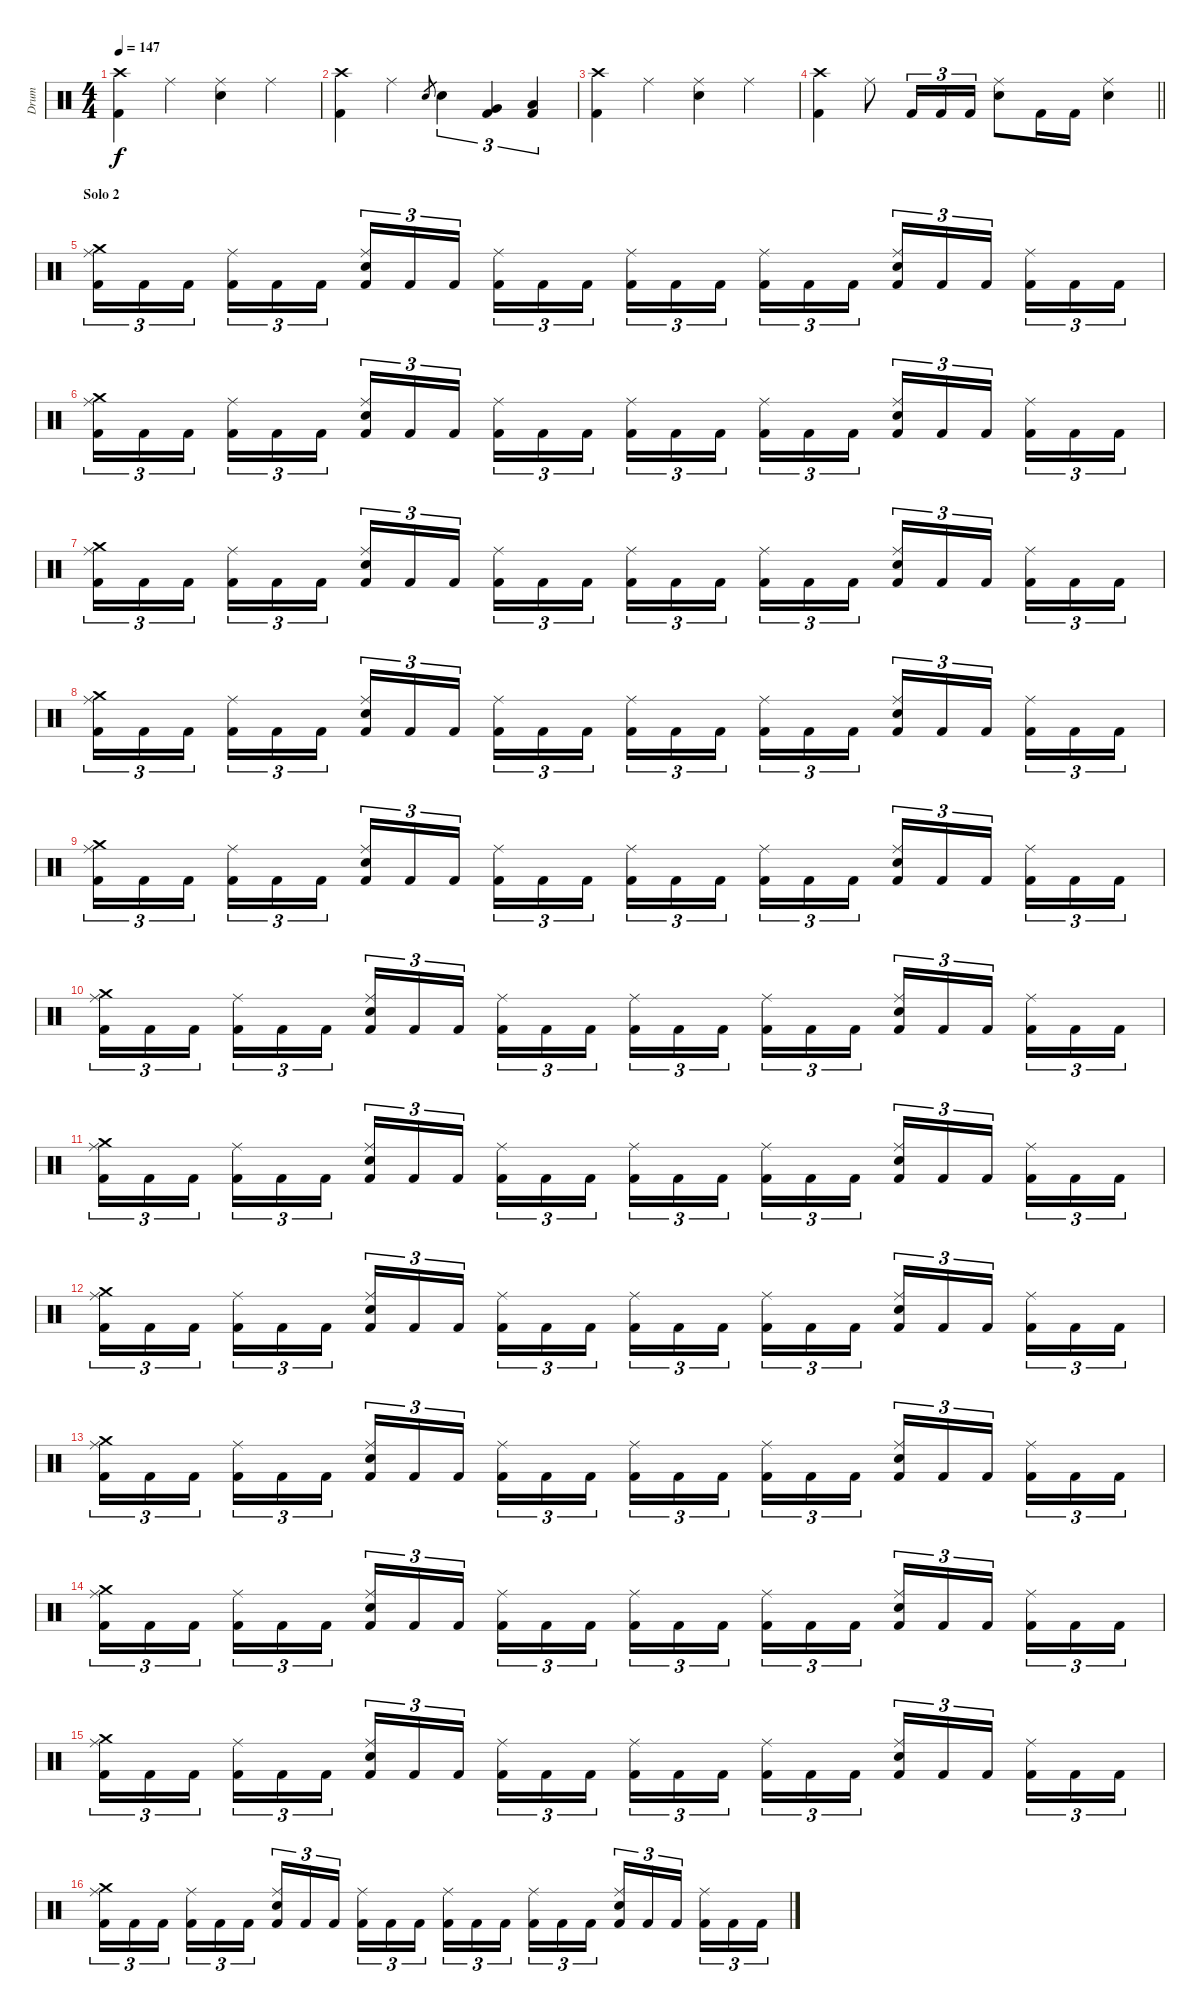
\track ("Drum" "Drum") {instrument percussion}
\staff {score}
\articulation defaults
\ts (4 4)
\tempo 147
\clef neutral
\ks c
("Crash high (hit)" "Kick (hit) 2").4{dy f} "Ride (middle)".4 ("Ride (middle)" "Electric Snare (hit)").4 "Ride (middle)".4 |
("Crash high (hit)" "Kick (hit) 2").4 "Ride (middle)".4 "Electric Snare (hit)".8{gr} "Electric Snare (hit)".4{tu (3 2)} ("Very Low Tom (hit)" "Kick (hit) 2").4{tu (3 2)} ("Low Floor Tom (hit)" "Kick (hit) 2").4{tu (3 2)} |
("Crash high (hit)" "Kick (hit) 2").4 "Ride (middle)".4 ("Ride (middle)" "Electric Snare (hit)").4 "Ride (middle)".4 |
\barLineRight lightlight
("Crash high (hit)" "Kick (hit) 2").4 "Ride (middle)".8 "Kick (hit) 2".16{tu (3 2)} "Kick (hit) 2".16{tu (3 2)} "Kick (hit) 2".16{tu (3 2)} ("Ride (middle)" "Electric Snare (hit)").8 "Kick (hit) 2".16 "Kick (hit) 2".16 ("Ride (middle)" "Electric Snare (hit)").4 |
\section ("" "Solo 2")
("Crash medium (hit)" "Ride (middle)" "Kick (hit) 2").16{tu (3 2)} "Kick (hit) 2".16{tu (3 2)} "Kick (hit) 2".16{tu (3 2) beam splitsecondary} ("Ride (middle)" "Kick (hit) 2").16{tu (3 2)} "Kick (hit) 2".16{tu (3 2)} "Kick (hit) 2".16{tu (3 2)} ("Ride (middle)" "Electric Snare (hit)" "Kick (hit) 2").16{tu (3 2)} "Kick (hit) 2".16{tu (3 2)} "Kick (hit) 2".16{tu (3 2) beam splitsecondary} ("Ride (middle)" "Kick (hit) 2").16{tu (3 2)} "Kick (hit) 2".16{tu (3 2)} "Kick (hit) 2".16{tu (3 2)} ("Ride (middle)" "Kick (hit) 2").16{tu (3 2)} "Kick (hit) 2".16{tu (3 2)} "Kick (hit) 2".16{tu (3 2) beam splitsecondary} ("Ride (middle)" "Kick (hit) 2").16{tu (3 2)} "Kick (hit) 2".16{tu (3 2)} "Kick (hit) 2".16{tu (3 2)} ("Ride (middle)" "Electric Snare (hit)" "Kick (hit) 2").16{tu (3 2)} "Kick (hit) 2".16{tu (3 2)} "Kick (hit) 2".16{tu (3 2) beam splitsecondary} ("Ride (middle)" "Kick (hit) 2").16{tu (3 2)} "Kick (hit) 2".16{tu (3 2)} "Kick (hit) 2".16{tu (3 2)} |
("Crash medium (hit)" "Ride (middle)" "Kick (hit) 2").16{tu (3 2)} "Kick (hit) 2".16{tu (3 2)} "Kick (hit) 2".16{tu (3 2) beam splitsecondary} ("Ride (middle)" "Kick (hit) 2").16{tu (3 2)} "Kick (hit) 2".16{tu (3 2)} "Kick (hit) 2".16{tu (3 2)} ("Ride (middle)" "Electric Snare (hit)" "Kick (hit) 2").16{tu (3 2)} "Kick (hit) 2".16{tu (3 2)} "Kick (hit) 2".16{tu (3 2) beam splitsecondary} ("Ride (middle)" "Kick (hit) 2").16{tu (3 2)} "Kick (hit) 2".16{tu (3 2)} "Kick (hit) 2".16{tu (3 2)} ("Ride (middle)" "Kick (hit) 2").16{tu (3 2)} "Kick (hit) 2".16{tu (3 2)} "Kick (hit) 2".16{tu (3 2) beam splitsecondary} ("Ride (middle)" "Kick (hit) 2").16{tu (3 2)} "Kick (hit) 2".16{tu (3 2)} "Kick (hit) 2".16{tu (3 2)} ("Ride (middle)" "Electric Snare (hit)" "Kick (hit) 2").16{tu (3 2)} "Kick (hit) 2".16{tu (3 2)} "Kick (hit) 2".16{tu (3 2) beam splitsecondary} ("Ride (middle)" "Kick (hit) 2").16{tu (3 2)} "Kick (hit) 2".16{tu (3 2)} "Kick (hit) 2".16{tu (3 2)} |
("Crash medium (hit)" "Ride (middle)" "Kick (hit) 2").16{tu (3 2)} "Kick (hit) 2".16{tu (3 2)} "Kick (hit) 2".16{tu (3 2) beam splitsecondary} ("Ride (middle)" "Kick (hit) 2").16{tu (3 2)} "Kick (hit) 2".16{tu (3 2)} "Kick (hit) 2".16{tu (3 2)} ("Ride (middle)" "Electric Snare (hit)" "Kick (hit) 2").16{tu (3 2)} "Kick (hit) 2".16{tu (3 2)} "Kick (hit) 2".16{tu (3 2) beam splitsecondary} ("Ride (middle)" "Kick (hit) 2").16{tu (3 2)} "Kick (hit) 2".16{tu (3 2)} "Kick (hit) 2".16{tu (3 2)} ("Ride (middle)" "Kick (hit) 2").16{tu (3 2)} "Kick (hit) 2".16{tu (3 2)} "Kick (hit) 2".16{tu (3 2) beam splitsecondary} ("Ride (middle)" "Kick (hit) 2").16{tu (3 2)} "Kick (hit) 2".16{tu (3 2)} "Kick (hit) 2".16{tu (3 2)} ("Ride (middle)" "Electric Snare (hit)" "Kick (hit) 2").16{tu (3 2)} "Kick (hit) 2".16{tu (3 2)} "Kick (hit) 2".16{tu (3 2) beam splitsecondary} ("Ride (middle)" "Kick (hit) 2").16{tu (3 2)} "Kick (hit) 2".16{tu (3 2)} "Kick (hit) 2".16{tu (3 2)} |
("Crash medium (hit)" "Ride (middle)" "Kick (hit) 2").16{tu (3 2)} "Kick (hit) 2".16{tu (3 2)} "Kick (hit) 2".16{tu (3 2) beam splitsecondary} ("Ride (middle)" "Kick (hit) 2").16{tu (3 2)} "Kick (hit) 2".16{tu (3 2)} "Kick (hit) 2".16{tu (3 2)} ("Ride (middle)" "Electric Snare (hit)" "Kick (hit) 2").16{tu (3 2)} "Kick (hit) 2".16{tu (3 2)} "Kick (hit) 2".16{tu (3 2) beam splitsecondary} ("Ride (middle)" "Kick (hit) 2").16{tu (3 2)} "Kick (hit) 2".16{tu (3 2)} "Kick (hit) 2".16{tu (3 2)} ("Ride (middle)" "Kick (hit) 2").16{tu (3 2)} "Kick (hit) 2".16{tu (3 2)} "Kick (hit) 2".16{tu (3 2) beam splitsecondary} ("Ride (middle)" "Kick (hit) 2").16{tu (3 2)} "Kick (hit) 2".16{tu (3 2)} "Kick (hit) 2".16{tu (3 2)} ("Ride (middle)" "Electric Snare (hit)" "Kick (hit) 2").16{tu (3 2)} "Kick (hit) 2".16{tu (3 2)} "Kick (hit) 2".16{tu (3 2) beam splitsecondary} ("Ride (middle)" "Kick (hit) 2").16{tu (3 2)} "Kick (hit) 2".16{tu (3 2)} "Kick (hit) 2".16{tu (3 2)} |
("Crash medium (hit)" "Ride (middle)" "Kick (hit) 2").16{tu (3 2)} "Kick (hit) 2".16{tu (3 2)} "Kick (hit) 2".16{tu (3 2) beam splitsecondary} ("Ride (middle)" "Kick (hit) 2").16{tu (3 2)} "Kick (hit) 2".16{tu (3 2)} "Kick (hit) 2".16{tu (3 2)} ("Ride (middle)" "Electric Snare (hit)" "Kick (hit) 2").16{tu (3 2)} "Kick (hit) 2".16{tu (3 2)} "Kick (hit) 2".16{tu (3 2) beam splitsecondary} ("Ride (middle)" "Kick (hit) 2").16{tu (3 2)} "Kick (hit) 2".16{tu (3 2)} "Kick (hit) 2".16{tu (3 2)} ("Ride (middle)" "Kick (hit) 2").16{tu (3 2)} "Kick (hit) 2".16{tu (3 2)} "Kick (hit) 2".16{tu (3 2) beam splitsecondary} ("Ride (middle)" "Kick (hit) 2").16{tu (3 2)} "Kick (hit) 2".16{tu (3 2)} "Kick (hit) 2".16{tu (3 2)} ("Ride (middle)" "Electric Snare (hit)" "Kick (hit) 2").16{tu (3 2)} "Kick (hit) 2".16{tu (3 2)} "Kick (hit) 2".16{tu (3 2) beam splitsecondary} ("Ride (middle)" "Kick (hit) 2").16{tu (3 2)} "Kick (hit) 2".16{tu (3 2)} "Kick (hit) 2".16{tu (3 2)} |
("Crash medium (hit)" "Ride (middle)" "Kick (hit) 2").16{tu (3 2)} "Kick (hit) 2".16{tu (3 2)} "Kick (hit) 2".16{tu (3 2) beam splitsecondary} ("Ride (middle)" "Kick (hit) 2").16{tu (3 2)} "Kick (hit) 2".16{tu (3 2)} "Kick (hit) 2".16{tu (3 2)} ("Ride (middle)" "Electric Snare (hit)" "Kick (hit) 2").16{tu (3 2)} "Kick (hit) 2".16{tu (3 2)} "Kick (hit) 2".16{tu (3 2) beam splitsecondary} ("Ride (middle)" "Kick (hit) 2").16{tu (3 2)} "Kick (hit) 2".16{tu (3 2)} "Kick (hit) 2".16{tu (3 2)} ("Ride (middle)" "Kick (hit) 2").16{tu (3 2)} "Kick (hit) 2".16{tu (3 2)} "Kick (hit) 2".16{tu (3 2) beam splitsecondary} ("Ride (middle)" "Kick (hit) 2").16{tu (3 2)} "Kick (hit) 2".16{tu (3 2)} "Kick (hit) 2".16{tu (3 2)} ("Ride (middle)" "Electric Snare (hit)" "Kick (hit) 2").16{tu (3 2)} "Kick (hit) 2".16{tu (3 2)} "Kick (hit) 2".16{tu (3 2) beam splitsecondary} ("Ride (middle)" "Kick (hit) 2").16{tu (3 2)} "Kick (hit) 2".16{tu (3 2)} "Kick (hit) 2".16{tu (3 2)} |
("Crash medium (hit)" "Ride (middle)" "Kick (hit) 2").16{tu (3 2)} "Kick (hit) 2".16{tu (3 2)} "Kick (hit) 2".16{tu (3 2) beam splitsecondary} ("Ride (middle)" "Kick (hit) 2").16{tu (3 2)} "Kick (hit) 2".16{tu (3 2)} "Kick (hit) 2".16{tu (3 2)} ("Ride (middle)" "Electric Snare (hit)" "Kick (hit) 2").16{tu (3 2)} "Kick (hit) 2".16{tu (3 2)} "Kick (hit) 2".16{tu (3 2) beam splitsecondary} ("Ride (middle)" "Kick (hit) 2").16{tu (3 2)} "Kick (hit) 2".16{tu (3 2)} "Kick (hit) 2".16{tu (3 2)} ("Ride (middle)" "Kick (hit) 2").16{tu (3 2)} "Kick (hit) 2".16{tu (3 2)} "Kick (hit) 2".16{tu (3 2) beam splitsecondary} ("Ride (middle)" "Kick (hit) 2").16{tu (3 2)} "Kick (hit) 2".16{tu (3 2)} "Kick (hit) 2".16{tu (3 2)} ("Ride (middle)" "Electric Snare (hit)" "Kick (hit) 2").16{tu (3 2)} "Kick (hit) 2".16{tu (3 2)} "Kick (hit) 2".16{tu (3 2) beam splitsecondary} ("Ride (middle)" "Kick (hit) 2").16{tu (3 2)} "Kick (hit) 2".16{tu (3 2)} "Kick (hit) 2".16{tu (3 2)} |
("Crash medium (hit)" "Ride (middle)" "Kick (hit) 2").16{tu (3 2)} "Kick (hit) 2".16{tu (3 2)} "Kick (hit) 2".16{tu (3 2) beam splitsecondary} ("Ride (middle)" "Kick (hit) 2").16{tu (3 2)} "Kick (hit) 2".16{tu (3 2)} "Kick (hit) 2".16{tu (3 2)} ("Ride (middle)" "Electric Snare (hit)" "Kick (hit) 2").16{tu (3 2)} "Kick (hit) 2".16{tu (3 2)} "Kick (hit) 2".16{tu (3 2) beam splitsecondary} ("Ride (middle)" "Kick (hit) 2").16{tu (3 2)} "Kick (hit) 2".16{tu (3 2)} "Kick (hit) 2".16{tu (3 2)} ("Ride (middle)" "Kick (hit) 2").16{tu (3 2)} "Kick (hit) 2".16{tu (3 2)} "Kick (hit) 2".16{tu (3 2) beam splitsecondary} ("Ride (middle)" "Kick (hit) 2").16{tu (3 2)} "Kick (hit) 2".16{tu (3 2)} "Kick (hit) 2".16{tu (3 2)} ("Ride (middle)" "Electric Snare (hit)" "Kick (hit) 2").16{tu (3 2)} "Kick (hit) 2".16{tu (3 2)} "Kick (hit) 2".16{tu (3 2) beam splitsecondary} ("Ride (middle)" "Kick (hit) 2").16{tu (3 2)} "Kick (hit) 2".16{tu (3 2)} "Kick (hit) 2".16{tu (3 2)} |
("Crash medium (hit)" "Ride (middle)" "Kick (hit) 2").16{tu (3 2)} "Kick (hit) 2".16{tu (3 2)} "Kick (hit) 2".16{tu (3 2) beam splitsecondary} ("Ride (middle)" "Kick (hit) 2").16{tu (3 2)} "Kick (hit) 2".16{tu (3 2)} "Kick (hit) 2".16{tu (3 2)} ("Ride (middle)" "Electric Snare (hit)" "Kick (hit) 2").16{tu (3 2)} "Kick (hit) 2".16{tu (3 2)} "Kick (hit) 2".16{tu (3 2) beam splitsecondary} ("Ride (middle)" "Kick (hit) 2").16{tu (3 2)} "Kick (hit) 2".16{tu (3 2)} "Kick (hit) 2".16{tu (3 2)} ("Ride (middle)" "Kick (hit) 2").16{tu (3 2)} "Kick (hit) 2".16{tu (3 2)} "Kick (hit) 2".16{tu (3 2) beam splitsecondary} ("Ride (middle)" "Kick (hit) 2").16{tu (3 2)} "Kick (hit) 2".16{tu (3 2)} "Kick (hit) 2".16{tu (3 2)} ("Ride (middle)" "Electric Snare (hit)" "Kick (hit) 2").16{tu (3 2)} "Kick (hit) 2".16{tu (3 2)} "Kick (hit) 2".16{tu (3 2) beam splitsecondary} ("Ride (middle)" "Kick (hit) 2").16{tu (3 2)} "Kick (hit) 2".16{tu (3 2)} "Kick (hit) 2".16{tu (3 2)} |
("Crash medium (hit)" "Ride (middle)" "Kick (hit) 2").16{tu (3 2)} "Kick (hit) 2".16{tu (3 2)} "Kick (hit) 2".16{tu (3 2) beam splitsecondary} ("Ride (middle)" "Kick (hit) 2").16{tu (3 2)} "Kick (hit) 2".16{tu (3 2)} "Kick (hit) 2".16{tu (3 2)} ("Ride (middle)" "Electric Snare (hit)" "Kick (hit) 2").16{tu (3 2)} "Kick (hit) 2".16{tu (3 2)} "Kick (hit) 2".16{tu (3 2) beam splitsecondary} ("Ride (middle)" "Kick (hit) 2").16{tu (3 2)} "Kick (hit) 2".16{tu (3 2)} "Kick (hit) 2".16{tu (3 2)} ("Ride (middle)" "Kick (hit) 2").16{tu (3 2)} "Kick (hit) 2".16{tu (3 2)} "Kick (hit) 2".16{tu (3 2) beam splitsecondary} ("Ride (middle)" "Kick (hit) 2").16{tu (3 2)} "Kick (hit) 2".16{tu (3 2)} "Kick (hit) 2".16{tu (3 2)} ("Ride (middle)" "Electric Snare (hit)" "Kick (hit) 2").16{tu (3 2)} "Kick (hit) 2".16{tu (3 2)} "Kick (hit) 2".16{tu (3 2) beam splitsecondary} ("Ride (middle)" "Kick (hit) 2").16{tu (3 2)} "Kick (hit) 2".16{tu (3 2)} "Kick (hit) 2".16{tu (3 2)} |
("Crash medium (hit)" "Ride (middle)" "Kick (hit) 2").16{tu (3 2)} "Kick (hit) 2".16{tu (3 2)} "Kick (hit) 2".16{tu (3 2) beam splitsecondary} ("Ride (middle)" "Kick (hit) 2").16{tu (3 2)} "Kick (hit) 2".16{tu (3 2)} "Kick (hit) 2".16{tu (3 2)} ("Ride (middle)" "Electric Snare (hit)" "Kick (hit) 2").16{tu (3 2)} "Kick (hit) 2".16{tu (3 2)} "Kick (hit) 2".16{tu (3 2) beam splitsecondary} ("Ride (middle)" "Kick (hit) 2").16{tu (3 2)} "Kick (hit) 2".16{tu (3 2)} "Kick (hit) 2".16{tu (3 2)} ("Ride (middle)" "Kick (hit) 2").16{tu (3 2)} "Kick (hit) 2".16{tu (3 2)} "Kick (hit) 2".16{tu (3 2) beam splitsecondary} ("Ride (middle)" "Kick (hit) 2").16{tu (3 2)} "Kick (hit) 2".16{tu (3 2)} "Kick (hit) 2".16{tu (3 2)} ("Ride (middle)" "Electric Snare (hit)" "Kick (hit) 2").16{tu (3 2)} "Kick (hit) 2".16{tu (3 2)} "Kick (hit) 2".16{tu (3 2) beam splitsecondary} ("Ride (middle)" "Kick (hit) 2").16{tu (3 2)} "Kick (hit) 2".16{tu (3 2)} "Kick (hit) 2".16{tu (3 2)} |
("Crash medium (hit)" "Ride (middle)" "Kick (hit) 2").16{tu (3 2)} "Kick (hit) 2".16{tu (3 2)} "Kick (hit) 2".16{tu (3 2) beam splitsecondary} ("Ride (middle)" "Kick (hit) 2").16{tu (3 2)} "Kick (hit) 2".16{tu (3 2)} "Kick (hit) 2".16{tu (3 2)} ("Ride (middle)" "Electric Snare (hit)" "Kick (hit) 2").16{tu (3 2)} "Kick (hit) 2".16{tu (3 2)} "Kick (hit) 2".16{tu (3 2) beam splitsecondary} ("Ride (middle)" "Kick (hit) 2").16{tu (3 2)} "Kick (hit) 2".16{tu (3 2)} "Kick (hit) 2".16{tu (3 2)} ("Ride (middle)" "Kick (hit) 2").16{tu (3 2)} "Kick (hit) 2".16{tu (3 2)} "Kick (hit) 2".16{tu (3 2) beam splitsecondary} ("Ride (middle)" "Kick (hit) 2").16{tu (3 2)} "Kick (hit) 2".16{tu (3 2)} "Kick (hit) 2".16{tu (3 2)} ("Ride (middle)" "Electric Snare (hit)" "Kick (hit) 2").16{tu (3 2)} "Kick (hit) 2".16{tu (3 2)} "Kick (hit) 2".16{tu (3 2) beam splitsecondary} ("Ride (middle)" "Kick (hit) 2").16{tu (3 2)} "Kick (hit) 2".16{tu (3 2)} "Kick (hit) 2".16{tu (3 2)}
